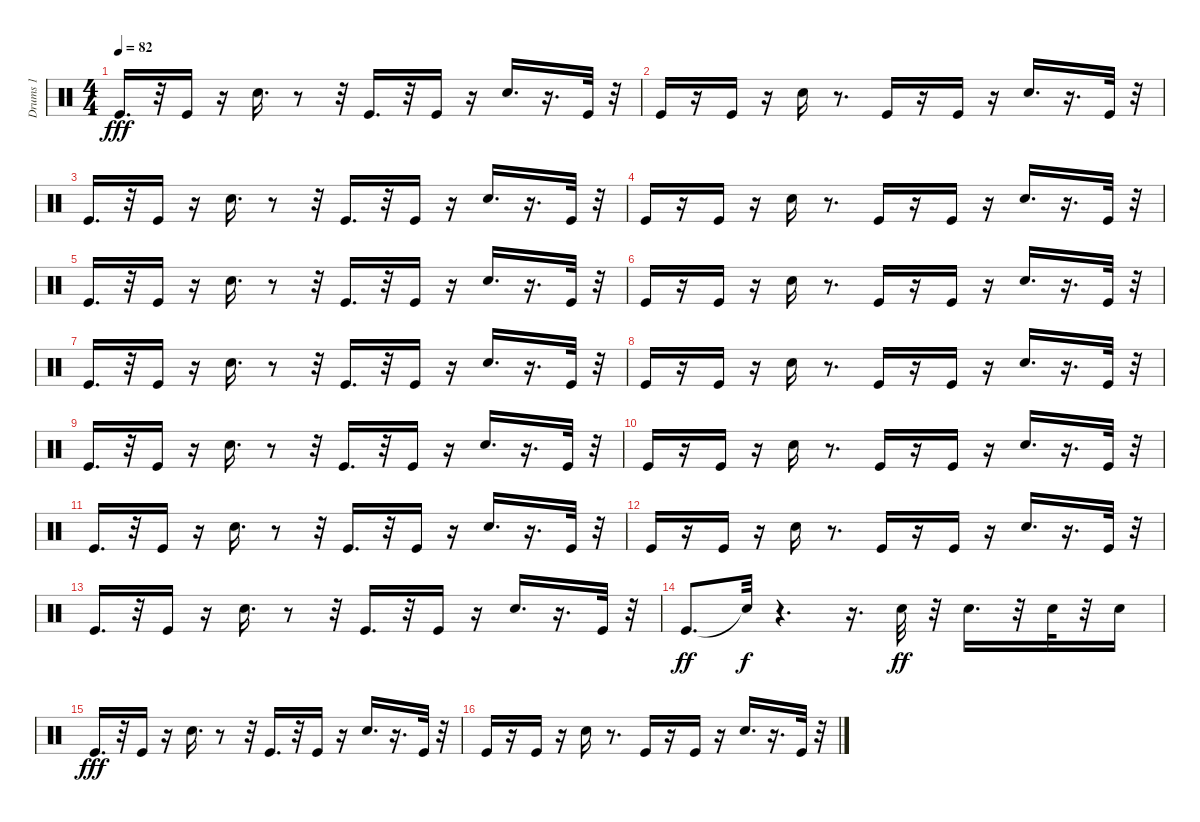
\track ("Drums 1" "Drums 1") {instrument percussion}
\staff {score}
\articulation defaults
\ts (4 4)
\tempo 82
\clef neutral
\ks c "Kick (hit)".16{d dy fff}
r.32 "Kick (hit)".16 r.16 "Electric Snare (hit)".16{d} r.8 r.32 "Kick (hit)".16{d} r.32 "Kick (hit)".16 r.16 "Electric Snare (hit)".16{d} r.16{d} "Kick (hit)".32 r.32 |
"Kick (hit)".16 r.16 "Kick (hit)".16 r.16 "Electric Snare (hit)".16 r.8{d} "Kick (hit)".16 r.16 "Kick (hit)".16 r.16 "Electric Snare (hit)".16{d} r.16{d} "Kick (hit)".32 r.32 |
"Kick (hit)".16{d} r.32 "Kick (hit)".16 r.16 "Electric Snare (hit)".16{d} r.8 r.32 "Kick (hit)".16{d} r.32 "Kick (hit)".16 r.16 "Electric Snare (hit)".16{d} r.16{d} "Kick (hit)".32 r.32 |
"Kick (hit)".16 r.16 "Kick (hit)".16 r.16 "Electric Snare (hit)".16 r.8{d} "Kick (hit)".16 r.16 "Kick (hit)".16 r.16 "Electric Snare (hit)".16{d} r.16{d} "Kick (hit)".32 r.32 |
"Kick (hit)".16{d} r.32 "Kick (hit)".16 r.16 "Electric Snare (hit)".16{d} r.8 r.32 "Kick (hit)".16{d} r.32 "Kick (hit)".16 r.16 "Electric Snare (hit)".16{d} r.16{d} "Kick (hit)".32 r.32 |
"Kick (hit)".16 r.16 "Kick (hit)".16 r.16 "Electric Snare (hit)".16 r.8{d} "Kick (hit)".16 r.16 "Kick (hit)".16 r.16 "Electric Snare (hit)".16{d} r.16{d} "Kick (hit)".32 r.32 |
"Kick (hit)".16{d} r.32 "Kick (hit)".16 r.16 "Electric Snare (hit)".16{d} r.8 r.32 "Kick (hit)".16{d} r.32 "Kick (hit)".16 r.16 "Electric Snare (hit)".16{d} r.16{d} "Kick (hit)".32 r.32 |
"Kick (hit)".16 r.16 "Kick (hit)".16 r.16 "Electric Snare (hit)".16 r.8{d} "Kick (hit)".16 r.16 "Kick (hit)".16 r.16 "Electric Snare (hit)".16{d} r.16{d} "Kick (hit)".32 r.32 |
"Kick (hit)".16{d} r.32 "Kick (hit)".16 r.16 "Electric Snare (hit)".16{d} r.8 r.32 "Kick (hit)".16{d} r.32 "Kick (hit)".16 r.16 "Electric Snare (hit)".16{d} r.16{d} "Kick (hit)".32 r.32 |
"Kick (hit)".16 r.16 "Kick (hit)".16 r.16 "Electric Snare (hit)".16 r.8{d} "Kick (hit)".16 r.16 "Kick (hit)".16 r.16 "Electric Snare (hit)".16{d} r.16{d} "Kick (hit)".32 r.32 |
"Kick (hit)".16{d} r.32 "Kick (hit)".16 r.16 "Electric Snare (hit)".16{d} r.8 r.32 "Kick (hit)".16{d} r.32 "Kick (hit)".16 r.16 "Electric Snare (hit)".16{d} r.16{d} "Kick (hit)".32 r.32 |
"Kick (hit)".16 r.16 "Kick (hit)".16 r.16 "Electric Snare (hit)".16 r.8{d} "Kick (hit)".16 r.16 "Kick (hit)".16 r.16 "Electric Snare (hit)".16{d} r.16{d} "Kick (hit)".32 r.32 |
"Kick (hit)".16{d} r.32 "Kick (hit)".16 r.16 "Electric Snare (hit)".16{d} r.8 r.32 "Kick (hit)".16{d} r.32 "Kick (hit)".16 r.16 "Electric Snare (hit)".16{d} r.16{d} "Kick (hit)".32 r.32 |
"Kick (hit)".8{d dy ff} "Snare (hit)"{t}.32{dy f} r.4{d} r.16{d} "Electric Snare (hit)".32{dy ff} r.32 "Electric Snare (hit)".16{d} r.32 "Electric Snare (hit)".32 r.32 "Electric Snare (hit)".16 |
"Kick (hit)".16{d dy fff} r.32 "Kick (hit)".16 r.16 "Electric Snare (hit)".16{d} r.8 r.32 "Kick (hit)".16{d} r.32 "Kick (hit)".16 r.16 "Electric Snare (hit)".16{d} r.16{d} "Kick (hit)".32 r.32 |
"Kick (hit)".16 r.16 "Kick (hit)".16 r.16 "Electric Snare (hit)".16 r.8{d} "Kick (hit)".16 r.16 "Kick (hit)".16 r.16 "Electric Snare (hit)".16{d} r.16{d} "Kick (hit)".32 r.32
